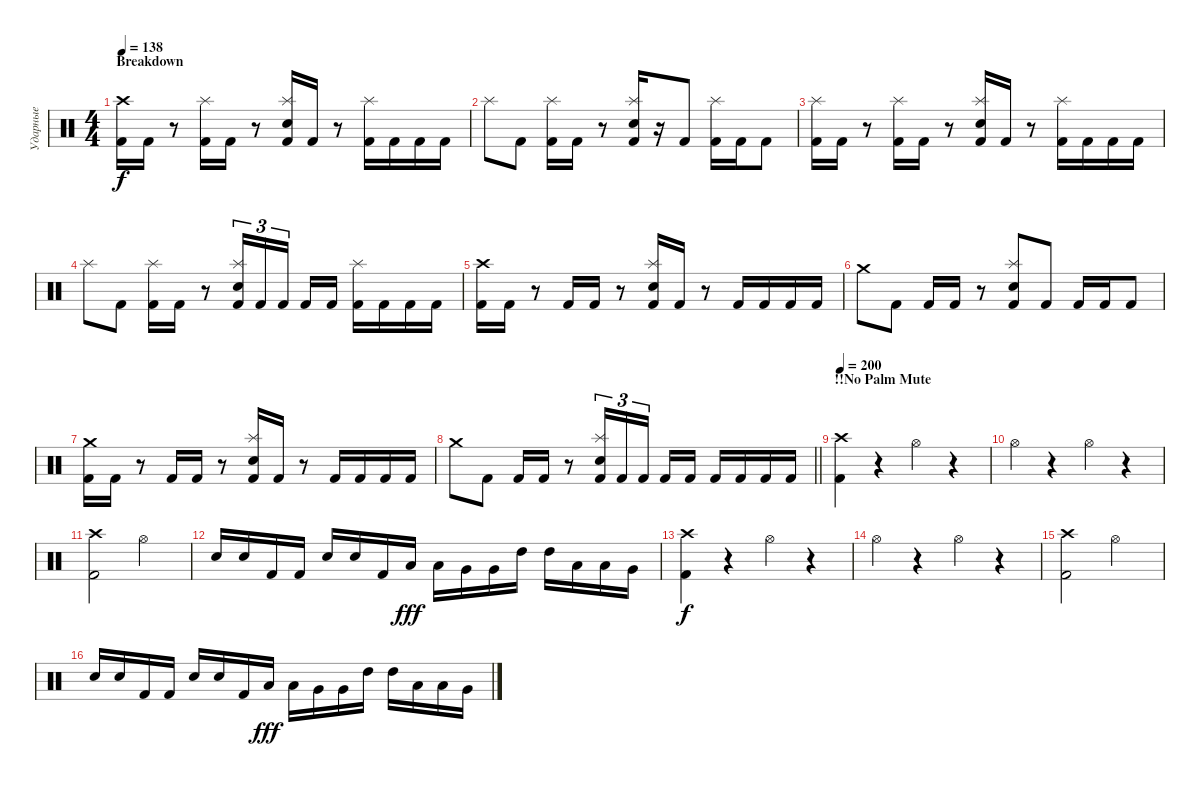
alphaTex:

\track ("Ударные" "Ударные") {instrument percussion}
\staff {score}
\articulation defaults
\ts (4 4)
\section ("" "Breakdown")
\tempo 138
\clef neutral
\ks c
("Crash high (hit)" "Kick (hit) 2").16{dy f} "Kick (hit) 2".16 r.8 ("Splash (hit)" "Kick (hit) 2").16 "Kick (hit) 2".16 r.8 ("Splash (hit)" "Electric Snare (hit)" "Kick (hit) 2").16 "Kick (hit) 2".16 r.8 ("Splash (hit)" "Kick (hit) 2").16 "Kick (hit) 2".16 "Kick (hit) 2".16 "Kick (hit) 2".16 |
"Splash (hit)".8 "Kick (hit) 2".8 ("Splash (hit)" "Kick (hit) 2").16 "Kick (hit) 2".16 r.8 ("Splash (hit)" "Electric Snare (hit)" "Kick (hit) 2").16 r.16 "Kick (hit) 2".8 ("Splash (hit)" "Kick (hit) 2").16 "Kick (hit) 2".16 "Kick (hit) 2".8 |
("Splash (hit)" "Kick (hit) 2").16 "Kick (hit) 2".16 r.8 ("Splash (hit)" "Kick (hit) 2").16 "Kick (hit) 2".16 r.8 ("Splash (hit)" "Electric Snare (hit)" "Kick (hit) 2").16 "Kick (hit) 2".16 r.8 ("Splash (hit)" "Kick (hit) 2").16 "Kick (hit) 2".16 "Kick (hit) 2".16 "Kick (hit) 2".16 |
"Splash (hit)".8 "Kick (hit) 2".8 ("Splash (hit)" "Kick (hit) 2").16 "Kick (hit) 2".16 r.8 ("Splash (hit)" "Electric Snare (hit)" "Kick (hit) 2").16{tu (3 2)} "Kick (hit) 2".16{tu (3 2)} "Kick (hit) 2".16{tu (3 2) beam splitsecondary} "Kick (hit) 2".16 "Kick (hit) 2".16 ("Splash (hit)" "Kick (hit) 2").16 "Kick (hit) 2".16 "Kick (hit) 2".16 "Kick (hit) 2".16 |
("Crash high (hit)" "Kick (hit) 2").16 "Kick (hit) 2".16 r.8 "Kick (hit) 2".16 "Kick (hit) 2".16 r.8 ("Splash (hit)" "Electric Snare (hit)" "Kick (hit) 2").16 "Kick (hit) 2".16 r.8 "Kick (hit) 2".16 "Kick (hit) 2".16 "Kick (hit) 2".16 "Kick (hit) 2".16 |
"Crash medium (hit)".8 "Kick (hit) 2".8 "Kick (hit) 2".16 "Kick (hit) 2".16 r.8 ("Splash (hit)" "Electric Snare (hit)" "Kick (hit) 2").8 "Kick (hit) 2".8 "Kick (hit) 2".16 "Kick (hit) 2".16 "Kick (hit) 2".8 |
("Crash medium (hit)" "Kick (hit) 2").16 "Kick (hit) 2".16 r.8 "Kick (hit) 2".16 "Kick (hit) 2".16 r.8 ("Splash (hit)" "Electric Snare (hit)" "Kick (hit) 2").16 "Kick (hit) 2".16 r.8 "Kick (hit) 2".16 "Kick (hit) 2".16 "Kick (hit) 2".16 "Kick (hit) 2".16 |
\barLineRight lightlight "Crash medium (hit)".8 "Kick (hit) 2".8 "Kick (hit) 2".16 "Kick (hit) 2".16
r.8 ("Splash (hit)" "Electric Snare (hit)" "Kick (hit) 2").16{tu (3 2)} "Kick (hit) 2".16{tu (3 2)} "Kick (hit) 2".16{tu (3 2) beam splitsecondary} "Kick (hit) 2".16 "Kick (hit) 2".16 "Kick (hit) 2".16 "Kick (hit) 2".16 "Kick (hit) 2".16 "Kick (hit) 2".16 |
\section ("" "!!No Palm Mute")
\tempo 200
("Crash high (hit)" "Kick (hit) 2").4 r.4 "Hi-Hat (open)".4 r.4 |
"Hi-Hat (open)".4 r.4 "Hi-Hat (open)".4 r.4 |
("Crash high (hit)" "Kick (hit) 2").2 "Hi-Hat (open)".2 |
"Electric Snare (hit)".16 "Electric Snare (hit)".16 "Kick (hit) 2".16 "Kick (hit) 2".16 "Electric Snare (hit)".16 "Electric Snare (hit)".16 "Kick (hit) 2".16 "Low Tom (hit)".16{dy fff} "Low Tom (hit)".16 "Very Low Tom (hit)".16 "Very Low Tom (hit)".16 "High Tom (hit)".16 "High Tom (hit)".16 "Low Tom (hit)".16 "Low Tom (hit)".16 "Very Low Tom (hit)".16 |
("Crash high (hit)" "Kick (hit) 2").4{dy f} r.4 "Hi-Hat (open)".4 r.4 |
"Hi-Hat (open)".4 r.4 "Hi-Hat (open)".4 r.4 |
("Crash high (hit)" "Kick (hit) 2").2 "Hi-Hat (open)".2 |
"Electric Snare (hit)".16 "Electric Snare (hit)".16 "Kick (hit) 2".16 "Kick (hit) 2".16 "Electric Snare (hit)".16 "Electric Snare (hit)".16 "Kick (hit) 2".16 "Low Tom (hit)".16{dy fff} "Low Tom (hit)".16 "Very Low Tom (hit)".16 "Very Low Tom (hit)".16 "High Tom (hit)".16 "High Tom (hit)".16 "Low Tom (hit)".16 "Low Tom (hit)".16 "Very Low Tom (hit)".16
